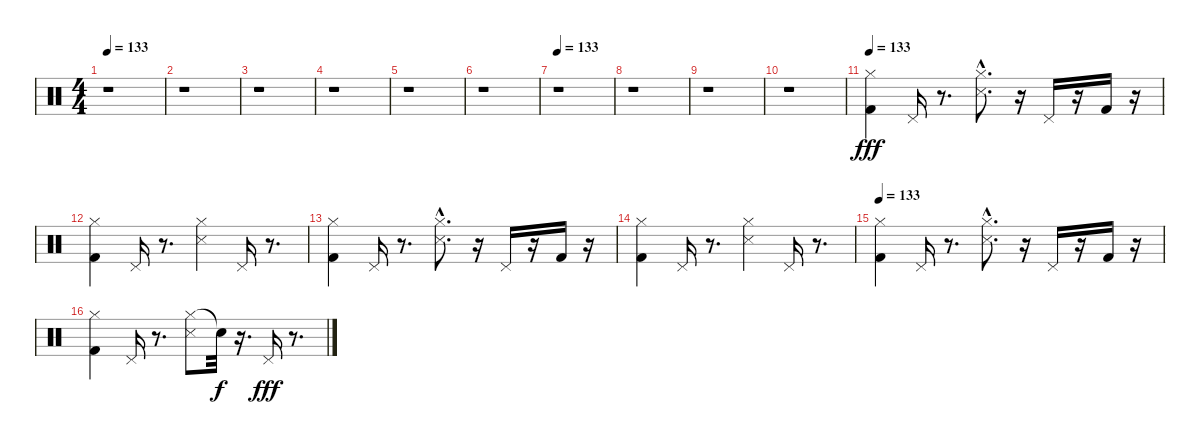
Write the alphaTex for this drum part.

\track "" {instrument percussion}
\staff {score}
\articulation defaults
\ts (4 4)
\tempo 133
\clef neutral
\ks c
r.1{dy fff} |
r.1 |
r.1 |
r.1 |
r.1 |
r.1 |
\tempo 133
r.1 |
r.1 |
r.1 |
r.1 |
\tempo 133
("Kick (hit) 2" "Hi-Hat (closed)").4 "Pedal Hi-Hat (hit)".16 r.8{d} ("Hi-Hat (closed)" "Snare (side stick) 3"{hac}).8{d} r.16 "Pedal Hi-Hat (hit)".16 r.16 "Kick (hit) 2".16 r.16 |
("Hi-Hat (closed)" "Kick (hit) 2").4 "Pedal Hi-Hat (hit)".16 r.8{d} ("Hi-Hat (closed)" "Snare (side stick) 3").4 "Pedal Hi-Hat (hit)".16 r.8{d} |
("Hi-Hat (closed)" "Kick (hit) 2").4 "Pedal Hi-Hat (hit)".16 r.8{d} ("Hi-Hat (closed)" "Snare (side stick) 3"{hac}).8{d} r.16 "Pedal Hi-Hat (hit)".16 r.16 "Kick (hit) 2".16 r.16 |
("Hi-Hat (closed)" "Kick (hit) 2").4 "Pedal Hi-Hat (hit)".16 r.8{d} ("Hi-Hat (closed)" "Snare (side stick) 3").4 "Pedal Hi-Hat (hit)".16 r.8{d} |
\tempo 133
("Hi-Hat (closed)" "Kick (hit) 2").4 "Pedal Hi-Hat (hit)".16 r.8{d} ("Snare (side stick) 3"{hac} "Hi-Hat (closed)").8{d} r.16 "Pedal Hi-Hat (hit)".16 r.16 "Kick (hit) 2".16 r.16 |
("Hi-Hat (closed)" "Kick (hit) 2").4 "Pedal Hi-Hat (hit)".16 r.8{d} ("Hi-Hat (closed)" "Snare (side stick) 3").8 "Snare (hit)"{t}.32{dy f} r.16{d} "Pedal Hi-Hat (hit)".16{dy fff} r.8{d}
